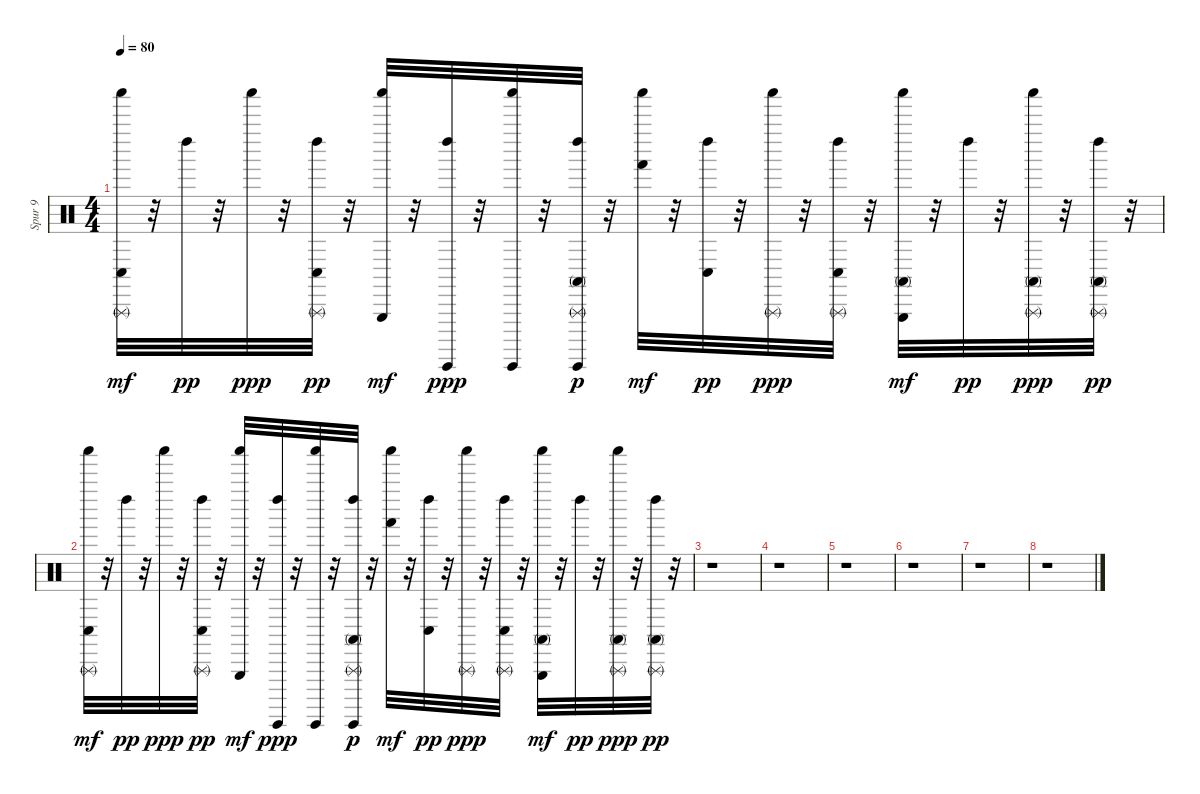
\track ("Spur 9" "Spur 9") {instrument percussion}
\staff {score}
\articulation defaults
\ts (4 4)
\tempo 80
\clef neutral
\ks c
("Conga low (hit)" "Triangle (rnute)" "Shaker (hit)").32{dy mf} r.32 "Left Maraca (hit)".32{dy pp} r.32 "Shaker (hit)".32{dy ppp} r.32 ("Conga low (hit)" "Left Maraca (hit)" "Triangle (rnute)").32{dy pp} r.32 ("Triangle (hit)" "Shaker (hit)").32{dy mf} r.32 ("Left Maraca (hit)" "Guiro (hit)").32{dy ppp} r.32 ("Guiro (hit)" "Shaker (hit)").32 r.32 ("Conga high (mute)" "Left Maraca (hit)" "Guiro (hit)" "Triangle (rnute)").32{dy p} r.32 ("Hand (hit)" "Shaker (hit)").32{dy mf} r.32 ("Conga low (hit)" "Left Maraca (hit)").32{dy pp} r.32 ("Triangle (rnute)" "Shaker (hit)").32{dy ppp} r.32 ("Conga low (hit)" "Left Maraca (hit)" "Triangle (rnute)").32 r.32 ("Conga high (mute)" "Triangle (hit)" "Shaker (hit)").32{dy mf} r.32 "Left Maraca (hit)".32{dy pp} r.32 ("Conga high (mute)" "Triangle (rnute)" "Shaker (hit)").32{dy ppp} r.32 ("Conga high (mute)" "Left Maraca (hit)" "Triangle (rnute)").32{dy pp} r.32 |
("Conga low (hit)" "Triangle (rnute)" "Shaker (hit)").32{dy mf} r.32 "Left Maraca (hit)".32{dy pp} r.32 "Shaker (hit)".32{dy ppp} r.32 ("Conga low (hit)" "Left Maraca (hit)" "Triangle (rnute)").32{dy pp} r.32 ("Triangle (hit)" "Shaker (hit)").32{dy mf} r.32 ("Left Maraca (hit)" "Guiro (hit)").32{dy ppp} r.32 ("Guiro (hit)" "Shaker (hit)").32 r.32 ("Conga high (mute)" "Left Maraca (hit)" "Guiro (hit)" "Triangle (rnute)").32{dy p} r.32 ("Hand (hit)" "Shaker (hit)").32{dy mf} r.32 ("Conga low (hit)" "Left Maraca (hit)").32{dy pp} r.32 ("Triangle (rnute)" "Shaker (hit)").32{dy ppp} r.32 ("Conga low (hit)" "Left Maraca (hit)" "Triangle (rnute)").32 r.32 ("Conga high (mute)" "Triangle (hit)" "Shaker (hit)").32{dy mf} r.32 "Left Maraca (hit)".32{dy pp} r.32 ("Conga high (mute)" "Triangle (rnute)" "Shaker (hit)").32{dy ppp} r.32 ("Conga high (mute)" "Left Maraca (hit)" "Triangle (rnute)").32{dy pp} r.32 |
r.1 |
r.1 |
r.1 |
r.1 |
r.1 |
r.1
